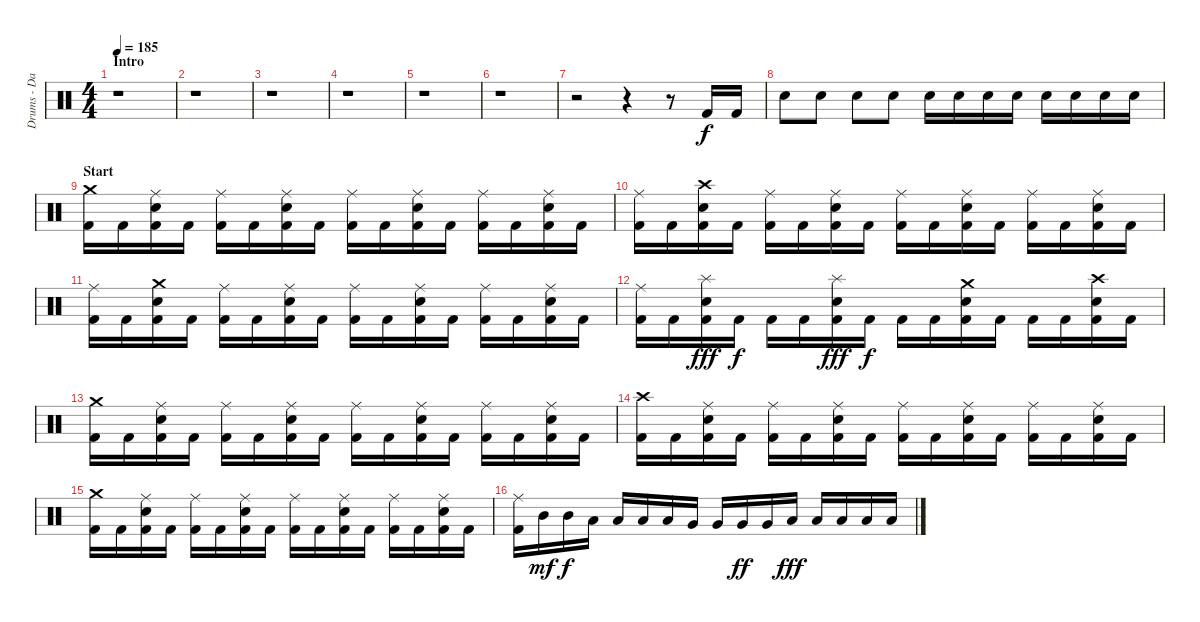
\track ("Drums - Daniel Zimmermann" "Drums - Da") {instrument percussion}
\staff {score}
\articulation defaults
\ts (4 4)
\section ("" "Intro")
\tempo 185
\clef neutral
\ks c
r.1{dy f} |
r.1 |
r.1 |
r.1 |
r.1 |
r.1 |
r.2 r.4 r.8 "Kick (hit) 2".16 "Kick (hit) 2".16 |
"Electric Snare (hit)".8 "Electric Snare (hit)".8 "Electric Snare (hit)".8 "Electric Snare (hit)".8 "Electric Snare (hit)".16 "Electric Snare (hit)".16 "Electric Snare (hit)".16 "Electric Snare (hit)".16 "Electric Snare (hit)".16 "Electric Snare (hit)".16 "Electric Snare (hit)".16 "Electric Snare (hit)".16 |
\section ("" "Start")
("Kick (hit) 2" "Crash medium (hit)").16 "Kick (hit) 2".16 ("Kick (hit) 2" "Electric Snare (hit)" "Ride (middle)").16 "Kick (hit) 2".16 ("Kick (hit) 2" "Ride (middle)").16 "Kick (hit) 2".16 ("Kick (hit) 2" "Electric Snare (hit)" "Ride (middle)").16 "Kick (hit) 2".16 ("Kick (hit) 2" "Ride (middle)").16 "Kick (hit) 2".16 ("Kick (hit) 2" "Electric Snare (hit)" "Ride (middle)").16 "Kick (hit) 2".16 ("Kick (hit) 2" "Ride (middle)").16 "Kick (hit) 2".16 ("Kick (hit) 2" "Electric Snare (hit)" "Ride (middle)").16 "Kick (hit) 2".16 |
("Kick (hit) 2" "Ride (middle)").16 "Kick (hit) 2".16 ("Kick (hit) 2" "Electric Snare (hit)" "Crash high (hit)").16 "Kick (hit) 2".16 ("Kick (hit) 2" "Ride (middle)").16 "Kick (hit) 2".16 ("Kick (hit) 2" "Electric Snare (hit)" "Ride (middle)").16 "Kick (hit) 2".16 ("Kick (hit) 2" "Ride (middle)").16 "Kick (hit) 2".16 ("Kick (hit) 2" "Electric Snare (hit)" "Ride (middle)").16 "Kick (hit) 2".16 ("Kick (hit) 2" "Ride (middle)").16 "Kick (hit) 2".16 ("Kick (hit) 2" "Electric Snare (hit)" "Ride (middle)").16 "Kick (hit) 2".16 |
("Kick (hit) 2" "Ride (middle)").16 "Kick (hit) 2".16 ("Kick (hit) 2" "Electric Snare (hit)" "Crash medium (hit)").16 "Kick (hit) 2".16 ("Kick (hit) 2" "Ride (middle)").16 "Kick (hit) 2".16 ("Kick (hit) 2" "Electric Snare (hit)" "Ride (middle)").16 "Kick (hit) 2".16 ("Kick (hit) 2" "Ride (middle)").16 "Kick (hit) 2".16 ("Kick (hit) 2" "Electric Snare (hit)" "Ride (middle)").16 "Kick (hit) 2".16 ("Kick (hit) 2" "Ride (middle)").16 "Kick (hit) 2".16 ("Kick (hit) 2" "Electric Snare (hit)" "Ride (middle)").16 "Kick (hit) 2".16 |
("Kick (hit) 2" "Ride (middle)").16 "Kick (hit) 2".16 ("Kick (hit) 2" "Electric Snare (hit)" "Splash (hit)").16{dy fff} "Kick (hit) 2".16{dy f} "Kick (hit) 2".16 "Kick (hit) 2".16 ("Kick (hit) 2" "Electric Snare (hit)" "Splash (hit)").16{dy fff} "Kick (hit) 2".16{dy f} "Kick (hit) 2".16 "Kick (hit) 2".16 ("Kick (hit) 2" "Electric Snare (hit)" "Crash medium (hit)").16 "Kick (hit) 2".16 "Kick (hit) 2".16 "Kick (hit) 2".16 ("Kick (hit) 2" "Electric Snare (hit)" "Crash high (hit)").16 "Kick (hit) 2".16 |
("Kick (hit) 2" "Crash medium (hit)").16 "Kick (hit) 2".16 ("Kick (hit) 2" "Electric Snare (hit)" "Ride (middle)").16 "Kick (hit) 2".16 ("Kick (hit) 2" "Ride (middle)").16 "Kick (hit) 2".16 ("Kick (hit) 2" "Electric Snare (hit)" "Ride (middle)").16 "Kick (hit) 2".16 ("Kick (hit) 2" "Ride (middle)").16 "Kick (hit) 2".16 ("Kick (hit) 2" "Electric Snare (hit)" "Ride (middle)").16 "Kick (hit) 2".16 ("Kick (hit) 2" "Ride (middle)").16 "Kick (hit) 2".16 ("Kick (hit) 2" "Electric Snare (hit)" "Ride (middle)").16 "Kick (hit) 2".16 |
("Kick (hit) 2" "Crash high (hit)").16 "Kick (hit) 2".16 ("Kick (hit) 2" "Electric Snare (hit)" "Ride (middle)").16 "Kick (hit) 2".16 ("Kick (hit) 2" "Ride (middle)").16 "Kick (hit) 2".16 ("Kick (hit) 2" "Electric Snare (hit)" "Ride (middle)").16 "Kick (hit) 2".16 ("Kick (hit) 2" "Ride (middle)").16 "Kick (hit) 2".16 ("Kick (hit) 2" "Electric Snare (hit)" "Ride (middle)").16 "Kick (hit) 2".16 ("Kick (hit) 2" "Ride (middle)").16 "Kick (hit) 2".16 ("Kick (hit) 2" "Electric Snare (hit)" "Ride (middle)").16 "Kick (hit) 2".16 |
("Kick (hit) 2" "Crash medium (hit)").16 "Kick (hit) 2".16 ("Kick (hit) 2" "Electric Snare (hit)" "Ride (middle)").16 "Kick (hit) 2".16 ("Kick (hit) 2" "Ride (middle)").16 "Kick (hit) 2".16 ("Kick (hit) 2" "Electric Snare (hit)" "Ride (middle)").16 "Kick (hit) 2".16 ("Kick (hit) 2" "Ride (middle)").16 "Kick (hit) 2".16 ("Kick (hit) 2" "Electric Snare (hit)" "Ride (middle)").16 "Kick (hit) 2".16 ("Kick (hit) 2" "Ride (middle)").16 "Kick (hit) 2".16 ("Kick (hit) 2" "Electric Snare (hit)" "Ride (middle)").16 "Kick (hit) 2".16 |
("Kick (hit) 2" "Ride (middle)").16 "Mid Tom (hit)".16{dy mf} "Mid Tom (hit)".16{dy f} "Low Tom (hit)".16 "Low Tom (hit)".16 "Low Tom (hit)".16 "Low Tom (hit)".16 "Very Low Tom (hit)".16 "Very Low Tom (hit)".16 "Very Low Tom (hit)".16{dy ff} "Very Low Tom (hit)".16 "Low Floor Tom (hit)".16{dy fff} "Low Floor Tom (hit)".16 "Low Floor Tom (hit)".16 "Low Floor Tom (hit)".16 "Low Floor Tom (hit)".16
